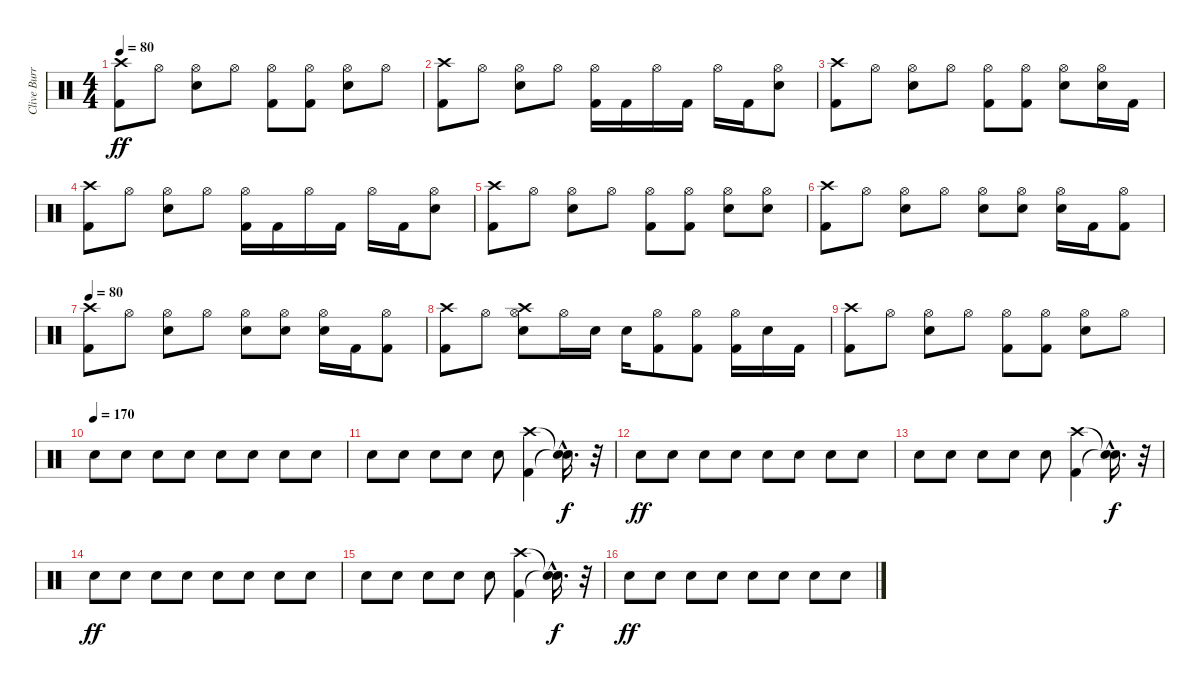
\track ("Clive Burr" "Clive Burr") {instrument percussion}
\staff {score}
\articulation defaults
\ts (4 4)
\tempo 80
\clef neutral
\ks c
("Kick (hit) 2" "Crash high (hit)").8{dy ff} "Hi-Hat (open)".8 ("Snare (hit) 2" "Hi-Hat (open)").8 "Hi-Hat (open)".8 ("Kick (hit) 2" "Hi-Hat (open)").8 ("Kick (hit) 2" "Hi-Hat (open)").8 ("Snare (hit) 2" "Hi-Hat (open)").8 "Hi-Hat (open)".8 |
("Kick (hit) 2" "Crash high (hit)").8 "Hi-Hat (open)".8 ("Snare (hit) 2" "Hi-Hat (open)").8 "Hi-Hat (open)".8 ("Kick (hit) 2" "Hi-Hat (open)").16 "Kick (hit) 2".16 "Hi-Hat (open)".16 "Kick (hit) 2".16 "Hi-Hat (open)".16 "Kick (hit) 2".16 ("Snare (hit) 2" "Hi-Hat (open)").8 |
("Kick (hit) 2" "Crash high (hit)").8 "Hi-Hat (open)".8 ("Snare (hit) 2" "Hi-Hat (open)").8 "Hi-Hat (open)".8 ("Kick (hit) 2" "Hi-Hat (open)").8 ("Kick (hit) 2" "Hi-Hat (open)").8 ("Snare (hit) 2" "Hi-Hat (open)").8 ("Snare (hit) 2" "Hi-Hat (open)").16 "Kick (hit) 2".16 |
("Kick (hit) 2" "Crash high (hit)").8 "Hi-Hat (open)".8 ("Snare (hit) 2" "Hi-Hat (open)").8 "Hi-Hat (open)".8 ("Kick (hit) 2" "Hi-Hat (open)").16 "Kick (hit) 2".16 "Hi-Hat (open)".16 "Kick (hit) 2".16 "Hi-Hat (open)".16 "Kick (hit) 2".16 ("Snare (hit) 2" "Hi-Hat (open)").8 |
("Kick (hit) 2" "Crash high (hit)").8 "Hi-Hat (open)".8 ("Snare (hit) 2" "Hi-Hat (open)").8 "Hi-Hat (open)".8 ("Kick (hit) 2" "Hi-Hat (open)").8 ("Kick (hit) 2" "Hi-Hat (open)").8 ("Snare (hit) 2" "Hi-Hat (open)").8 ("Snare (hit) 2" "Hi-Hat (open)").8 |
("Kick (hit) 2" "Crash high (hit)").8 "Hi-Hat (open)".8 ("Snare (hit) 2" "Hi-Hat (open)").8 "Hi-Hat (open)".8 ("Snare (hit) 2" "Hi-Hat (open)").8 ("Snare (hit) 2" "Hi-Hat (open)").8 ("Snare (hit) 2" "Hi-Hat (open)").16 "Kick (hit) 2".16 ("Kick (hit) 2" "Hi-Hat (open)").8 |
\tempo 80
("Kick (hit) 2" "Crash high (hit)").8 "Hi-Hat (open)".8 ("Snare (hit) 2" "Hi-Hat (open)").8 "Hi-Hat (open)".8 ("Snare (hit) 2" "Hi-Hat (open)").8 ("Snare (hit) 2" "Hi-Hat (open)").8 ("Snare (hit) 2" "Hi-Hat (open)").16 "Kick (hit) 2".16 ("Kick (hit) 2" "Hi-Hat (open)").8 |
("Kick (hit) 2" "Crash high (hit)").8 "Hi-Hat (open)".8 ("Snare (hit) 2" "Hi-Hat (open)" "Crash high (hit)").8 "Hi-Hat (open)".16 "Snare (hit) 2".16 "Snare (hit) 2".16 ("Kick (hit) 2" "Hi-Hat (open)").8 ("Kick (hit) 2" "Hi-Hat (open)").8 ("Kick (hit) 2" "Hi-Hat (open)").16 "Snare (hit) 2".16 "Kick (hit) 2".16 |
("Kick (hit) 2" "Crash high (hit)").8 "Hi-Hat (open)".8 ("Snare (hit) 2" "Hi-Hat (open)").8 "Hi-Hat (open)".8 ("Kick (hit) 2" "Hi-Hat (open)").8 ("Kick (hit) 2" "Hi-Hat (open)").8 ("Snare (hit) 2" "Hi-Hat (open)").8 "Hi-Hat (open)".8 |
\tempo (170)
"Snare (hit) 2".8 "Snare (hit) 2".8 "Snare (hit) 2".8 "Snare (hit) 2".8 "Snare (hit) 2".8 "Snare (hit) 2".8 "Snare (hit) 2".8 "Snare (hit) 2".8 |
"Snare (hit) 2".8 "Snare (hit) 2".8 "Snare (hit) 2".8 "Snare (hit) 2".8 "Snare (hit) 2".8 ("Kick (hit) 2" "Crash high (hit)").4 ("Snare (hit)"{hac t} "Snare (hit)"{hac t}).16{d dy f} r.32 |
"Snare (hit) 2".8{dy ff} "Snare (hit) 2".8 "Snare (hit) 2".8 "Snare (hit) 2".8 "Snare (hit) 2".8 "Snare (hit) 2".8 "Snare (hit) 2".8 "Snare (hit) 2".8 |
"Snare (hit) 2".8 "Snare (hit) 2".8 "Snare (hit) 2".8 "Snare (hit) 2".8 "Snare (hit) 2".8 ("Kick (hit) 2" "Crash high (hit)").4 ("Snare (hit)"{hac t} "Snare (hit)"{hac t}).16{d dy f} r.32 |
"Snare (hit) 2".8{dy ff} "Snare (hit) 2".8 "Snare (hit) 2".8 "Snare (hit) 2".8 "Snare (hit) 2".8 "Snare (hit) 2".8 "Snare (hit) 2".8 "Snare (hit) 2".8 |
"Snare (hit) 2".8 "Snare (hit) 2".8 "Snare (hit) 2".8 "Snare (hit) 2".8 "Snare (hit) 2".8 ("Kick (hit) 2" "Crash high (hit)").4 ("Snare (hit)"{hac t} "Snare (hit)"{hac t}).16{d dy f} r.32 |
"Snare (hit) 2".8{dy ff} "Snare (hit) 2".8 "Snare (hit) 2".8 "Snare (hit) 2".8 "Snare (hit) 2".8 "Snare (hit) 2".8 "Snare (hit) 2".8 "Snare (hit) 2".8
